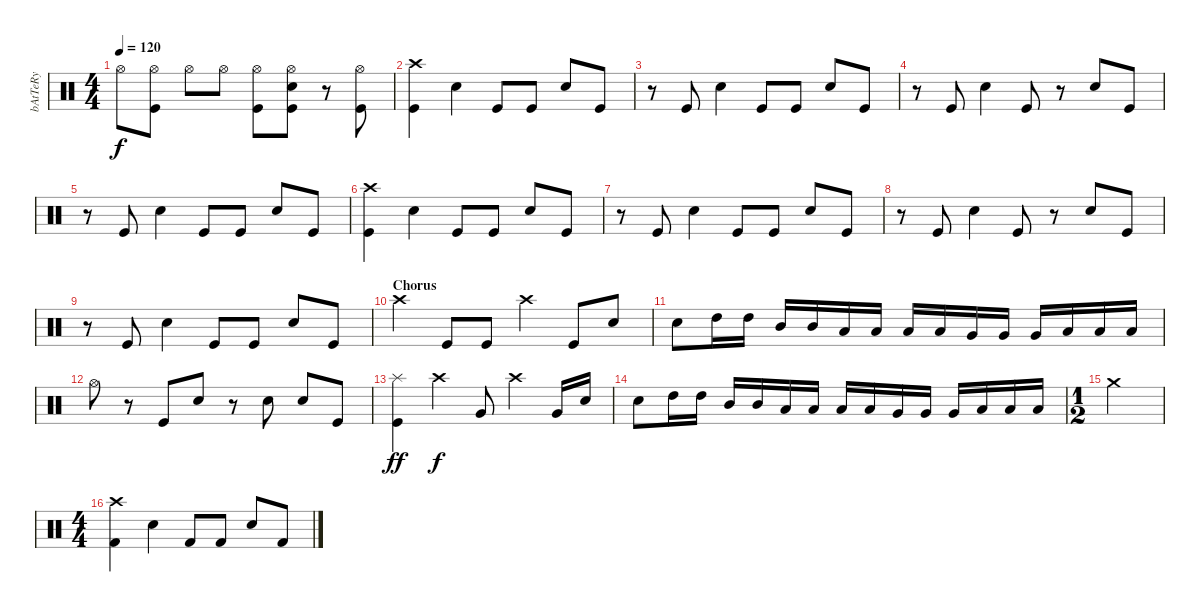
\track ("bAtTeRy" "bAtTeRy") {instrument percussion}
\staff {score}
\articulation defaults
\ts (4 4)
\tempo 120
\clef neutral
\ks c "Hi-Hat (open)".8{dy f}
("Hi-Hat (open)" "Kick (hit)").8 "Hi-Hat (open)".8 "Hi-Hat (open)".8 ("Hi-Hat (open)" "Kick (hit)").8 ("Hi-Hat (open)" "Electric Snare (hit)" "Kick (hit)").8 r.8 ("Hi-Hat (open)" "Kick (hit)").8 |
("Crash high (hit)" "Kick (hit)").4 "Electric Snare (hit)".4 "Kick (hit)".8 "Kick (hit)".8 "Electric Snare (hit)".8 "Kick (hit)".8 |
r.8 "Kick (hit)".8 "Electric Snare (hit)".4 "Kick (hit)".8 "Kick (hit)".8 "Electric Snare (hit)".8 "Kick (hit)".8 |
r.8 "Kick (hit)".8 "Electric Snare (hit)".4 "Kick (hit)".8 r.8 "Electric Snare (hit)".8 "Kick (hit)".8 |
r.8 "Kick (hit)".8 "Electric Snare (hit)".4 "Kick (hit)".8 "Kick (hit)".8 "Electric Snare (hit)".8 "Kick (hit)".8 |
("Crash high (hit)" "Kick (hit)").4 "Electric Snare (hit)".4 "Kick (hit)".8 "Kick (hit)".8 "Electric Snare (hit)".8 "Kick (hit)".8 |
r.8 "Kick (hit)".8 "Electric Snare (hit)".4 "Kick (hit)".8 "Kick (hit)".8 "Electric Snare (hit)".8 "Kick (hit)".8 |
r.8 "Kick (hit)".8 "Electric Snare (hit)".4 "Kick (hit)".8 r.8 "Electric Snare (hit)".8 "Kick (hit)".8 |
r.8 "Kick (hit)".8 "Electric Snare (hit)".4 "Kick (hit)".8 "Kick (hit)".8 "Electric Snare (hit)".8 "Kick (hit)".8 |
\section ("" "Chorus")
"Crash high (hit)".4 "Kick (hit)".8 "Kick (hit)".8 "Crash high (hit)".4 "Kick (hit)".8 "Electric Snare (hit)".8 |
"Electric Snare (hit)".8 "High Tom (hit)".16 "High Tom (hit)".16 "Mid Tom (hit)".16 "Mid Tom (hit)".16 "Low Tom (hit)".16 "Low Tom (hit)".16 "Low Tom (hit)".16 "Low Tom (hit)".16 "Very Low Tom (hit)".16 "Very Low Tom (hit)".16 "Very Low Tom (hit)".16 "Low Floor Tom (hit)".16 "Low Floor Tom (hit)".16 "Low Floor Tom (hit)".16 |
"Hi-Hat (open)".8 r.8 "Kick (hit)".8 "Electric Snare (hit)".8 r.8 "Electric Snare (hit)".8 "Electric Snare (hit)".8 "Kick (hit)".8 |
("Splash (hit)" "Kick (hit)").4{dy ff} "Crash high (hit)".4{dy f} "Very Low Tom (hit)".8 "Crash high (hit)".4 "Very Low Tom (hit)".16 "Electric Snare (hit)".16 |
"Electric Snare (hit)".8 "High Tom (hit)".16 "High Tom (hit)".16 "Mid Tom (hit)".16 "Mid Tom (hit)".16 "Low Tom (hit)".16 "Low Tom (hit)".16 "Low Tom (hit)".16 "Low Tom (hit)".16 "Very Low Tom (hit)".16 "Very Low Tom (hit)".16 "Very Low Tom (hit)".16 "Low Floor Tom (hit)".16 "Low Floor Tom (hit)".16 "Low Floor Tom (hit)".16 |
\ts (1 2)
"Crash medium (hit)".2 |
\ts (4 4)
("Crash high (hit)" "Kick (hit) 2").4 "Electric Snare (hit)".4 "Kick (hit) 2".8 "Kick (hit) 2".8 "Electric Snare (hit)".8 "Kick (hit) 2".8
